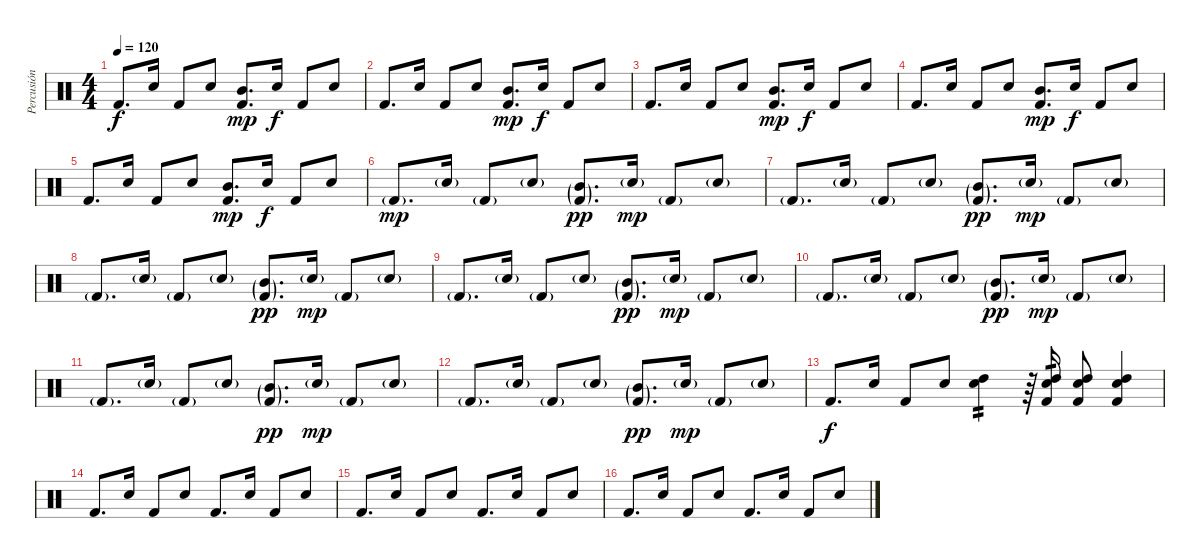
\track ("Percusión" "Percusión") {instrument percussion}
\staff {score}
\articulation defaults
\ts (4 4)
\tempo 120
\clef neutral
\ks c "Kick (hit) 2".8{d dy f} "Electric Snare (hit)".16 "Kick (hit) 2".8 "Electric Snare (hit)".8
("Kick (hit) 2" "Mid Tom (hit)").8{d dy mp} "Electric Snare (hit)".16{dy f} "Kick (hit) 2".8 "Electric Snare (hit)".8 |
"Kick (hit) 2".8{d} "Electric Snare (hit)".16 "Kick (hit) 2".8 "Electric Snare (hit)".8 ("Kick (hit) 2" "Mid Tom (hit)").8{d dy mp} "Electric Snare (hit)".16{dy f} "Kick (hit) 2".8 "Electric Snare (hit)".8 |
"Kick (hit) 2".8{d} "Electric Snare (hit)".16 "Kick (hit) 2".8 "Electric Snare (hit)".8 ("Kick (hit) 2" "Mid Tom (hit)").8{d dy mp} "Electric Snare (hit)".16{dy f} "Kick (hit) 2".8 "Electric Snare (hit)".8 |
"Kick (hit) 2".8{d} "Electric Snare (hit)".16 "Kick (hit) 2".8 "Electric Snare (hit)".8 ("Kick (hit) 2" "Mid Tom (hit)").8{d dy mp} "Electric Snare (hit)".16{dy f} "Kick (hit) 2".8 "Electric Snare (hit)".8 |
"Kick (hit) 2".8{d} "Electric Snare (hit)".16 "Kick (hit) 2".8 "Electric Snare (hit)".8 ("Kick (hit) 2" "Mid Tom (hit)").8{d dy mp} "Electric Snare (hit)".16{dy f} "Kick (hit) 2".8 "Electric Snare (hit)".8 |
"Kick (hit) 2"{g}.8{d dy mp} "Electric Snare (hit)"{g}.16 "Kick (hit) 2"{g}.8 "Electric Snare (hit)"{g}.8 ("Kick (hit) 2"{g} "Mid Tom (hit)"{g}).8{d dy pp} "Electric Snare (hit)"{g}.16{dy mp} "Kick (hit) 2"{g}.8 "Electric Snare (hit)"{g}.8 |
"Kick (hit) 2"{g}.8{d} "Electric Snare (hit)"{g}.16 "Kick (hit) 2"{g}.8 "Electric Snare (hit)"{g}.8 ("Kick (hit) 2"{g} "Mid Tom (hit)"{g}).8{d dy pp} "Electric Snare (hit)"{g}.16{dy mp} "Kick (hit) 2"{g}.8 "Electric Snare (hit)"{g}.8 |
"Kick (hit) 2"{g}.8{d} "Electric Snare (hit)"{g}.16 "Kick (hit) 2"{g}.8 "Electric Snare (hit)"{g}.8 ("Kick (hit) 2"{g} "Mid Tom (hit)"{g}).8{d dy pp} "Electric Snare (hit)"{g}.16{dy mp} "Kick (hit) 2"{g}.8 "Electric Snare (hit)"{g}.8 |
"Kick (hit) 2"{g}.8{d} "Electric Snare (hit)"{g}.16 "Kick (hit) 2"{g}.8 "Electric Snare (hit)"{g}.8 ("Kick (hit) 2"{g} "Mid Tom (hit)"{g}).8{d dy pp} "Electric Snare (hit)"{g}.16{dy mp} "Kick (hit) 2"{g}.8 "Electric Snare (hit)"{g}.8 |
"Kick (hit) 2"{g}.8{d} "Electric Snare (hit)"{g}.16 "Kick (hit) 2"{g}.8 "Electric Snare (hit)"{g}.8 ("Kick (hit) 2"{g} "Mid Tom (hit)"{g}).8{d dy pp} "Electric Snare (hit)"{g}.16{dy mp} "Kick (hit) 2"{g}.8 "Electric Snare (hit)"{g}.8 |
"Kick (hit) 2"{g}.8{d} "Electric Snare (hit)"{g}.16 "Kick (hit) 2"{g}.8 "Electric Snare (hit)"{g}.8 ("Kick (hit) 2"{g} "Mid Tom (hit)"{g}).8{d dy pp} "Electric Snare (hit)"{g}.16{dy mp} "Kick (hit) 2"{g}.8 "Electric Snare (hit)"{g}.8 |
"Kick (hit) 2"{g}.8{d} "Electric Snare (hit)"{g}.16 "Kick (hit) 2"{g}.8 "Electric Snare (hit)"{g}.8 ("Kick (hit) 2"{g} "Mid Tom (hit)"{g}).8{d dy pp} "Electric Snare (hit)"{g}.16{dy mp} "Kick (hit) 2"{g}.8 "Electric Snare (hit)"{g}.8 |
"Kick (hit) 2".8{d dy f} "Electric Snare (hit)".16 "Kick (hit) 2".8 "Electric Snare (hit)".8 ("High Tom (hit)" "Electric Snare (hit)").4{tp 2} r.64 ("High Tom (hit)" "Electric Snare (hit)" "Kick (hit) 2").16{tp 1 beam split} ("High Tom (hit)" "Electric Snare (hit)" "Kick (hit) 2").8 ("High Tom (hit)" "Electric Snare (hit)" "Kick (hit) 2").4 |
"Kick (hit) 2".8{d} "Electric Snare (hit)".16 "Kick (hit) 2".8 "Electric Snare (hit)".8 "Kick (hit) 2".8{d} "Electric Snare (hit)".16 "Kick (hit) 2".8 "Electric Snare (hit)".8 |
"Kick (hit) 2".8{d} "Electric Snare (hit)".16 "Kick (hit) 2".8 "Electric Snare (hit)".8 "Kick (hit) 2".8{d} "Electric Snare (hit)".16 "Kick (hit) 2".8 "Electric Snare (hit)".8 |
"Kick (hit) 2".8{d} "Electric Snare (hit)".16 "Kick (hit) 2".8 "Electric Snare (hit)".8 "Kick (hit) 2".8{d} "Electric Snare (hit)".16 "Kick (hit) 2".8 "Electric Snare (hit)".8
